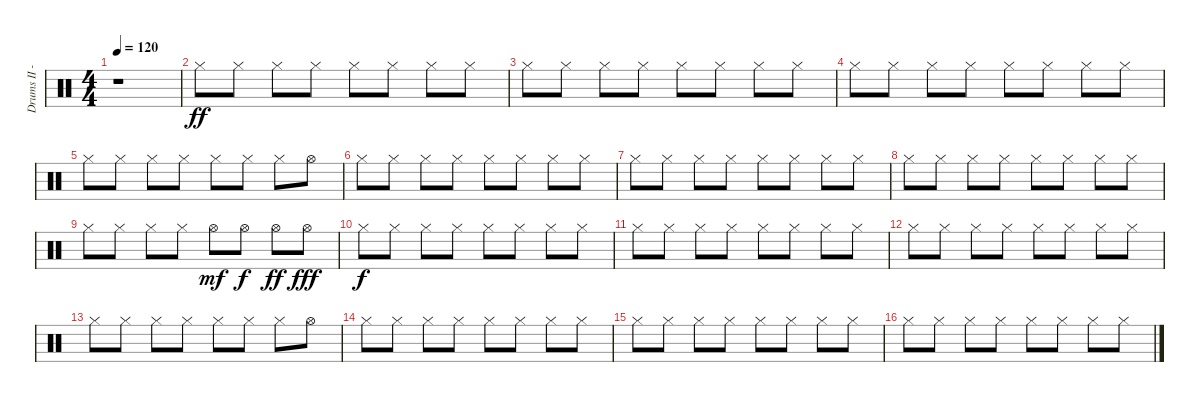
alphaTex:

\track ("Drums II - Bobby Schayer" "Drums II -") {instrument percussion}
\staff {score}
\articulation defaults
\ts (4 4)
\tempo 120
\clef neutral
\ks c
r.1{dy ff} |
"Hi-Hat (closed)".8 "Hi-Hat (closed)".8 "Hi-Hat (closed)".8 "Hi-Hat (closed)".8 "Hi-Hat (closed)".8 "Hi-Hat (closed)".8 "Hi-Hat (closed)".8 "Hi-Hat (closed)".8 |
"Hi-Hat (closed)".8 "Hi-Hat (closed)".8 "Hi-Hat (closed)".8 "Hi-Hat (closed)".8 "Hi-Hat (closed)".8 "Hi-Hat (closed)".8 "Hi-Hat (closed)".8 "Hi-Hat (closed)".8 |
"Hi-Hat (closed)".8 "Hi-Hat (closed)".8 "Hi-Hat (closed)".8 "Hi-Hat (closed)".8 "Hi-Hat (closed)".8 "Hi-Hat (closed)".8 "Hi-Hat (closed)".8 "Hi-Hat (closed)".8 |
"Hi-Hat (closed)".8 "Hi-Hat (closed)".8 "Hi-Hat (closed)".8 "Hi-Hat (closed)".8 "Hi-Hat (closed)".8 "Hi-Hat (closed)".8 "Hi-Hat (closed)".8 "Hi-Hat (open)".8 |
"Hi-Hat (closed)".8 "Hi-Hat (closed)".8 "Hi-Hat (closed)".8 "Hi-Hat (closed)".8 "Hi-Hat (closed)".8 "Hi-Hat (closed)".8 "Hi-Hat (closed)".8 "Hi-Hat (closed)".8 |
"Hi-Hat (closed)".8 "Hi-Hat (closed)".8 "Hi-Hat (closed)".8 "Hi-Hat (closed)".8 "Hi-Hat (closed)".8 "Hi-Hat (closed)".8 "Hi-Hat (closed)".8 "Hi-Hat (closed)".8 |
"Hi-Hat (closed)".8 "Hi-Hat (closed)".8 "Hi-Hat (closed)".8 "Hi-Hat (closed)".8 "Hi-Hat (closed)".8 "Hi-Hat (closed)".8 "Hi-Hat (closed)".8 "Hi-Hat (closed)".8 |
"Hi-Hat (closed)".8 "Hi-Hat (closed)".8 "Hi-Hat (closed)".8 "Hi-Hat (closed)".8 "Hi-Hat (open)".8{dy mf} "Hi-Hat (open)".8{dy f} "Hi-Hat (open)".8{dy ff} "Hi-Hat (open)".8{dy fff} |
"Hi-Hat (closed)".8{dy f} "Hi-Hat (closed)".8 "Hi-Hat (closed)".8 "Hi-Hat (closed)".8 "Hi-Hat (closed)".8 "Hi-Hat (closed)".8 "Hi-Hat (closed)".8 "Hi-Hat (closed)".8 |
"Hi-Hat (closed)".8 "Hi-Hat (closed)".8 "Hi-Hat (closed)".8 "Hi-Hat (closed)".8 "Hi-Hat (closed)".8 "Hi-Hat (closed)".8 "Hi-Hat (closed)".8 "Hi-Hat (closed)".8 |
"Hi-Hat (closed)".8 "Hi-Hat (closed)".8 "Hi-Hat (closed)".8 "Hi-Hat (closed)".8 "Hi-Hat (closed)".8 "Hi-Hat (closed)".8 "Hi-Hat (closed)".8 "Hi-Hat (closed)".8 |
"Hi-Hat (closed)".8 "Hi-Hat (closed)".8 "Hi-Hat (closed)".8 "Hi-Hat (closed)".8 "Hi-Hat (closed)".8 "Hi-Hat (closed)".8 "Hi-Hat (closed)".8 "Hi-Hat (open)".8 |
"Hi-Hat (closed)".8 "Hi-Hat (closed)".8 "Hi-Hat (closed)".8 "Hi-Hat (closed)".8 "Hi-Hat (closed)".8 "Hi-Hat (closed)".8 "Hi-Hat (closed)".8 "Hi-Hat (closed)".8 |
"Hi-Hat (closed)".8 "Hi-Hat (closed)".8 "Hi-Hat (closed)".8 "Hi-Hat (closed)".8 "Hi-Hat (closed)".8 "Hi-Hat (closed)".8 "Hi-Hat (closed)".8 "Hi-Hat (closed)".8 |
"Hi-Hat (closed)".8 "Hi-Hat (closed)".8 "Hi-Hat (closed)".8 "Hi-Hat (closed)".8 "Hi-Hat (closed)".8 "Hi-Hat (closed)".8 "Hi-Hat (closed)".8 "Hi-Hat (closed)".8
